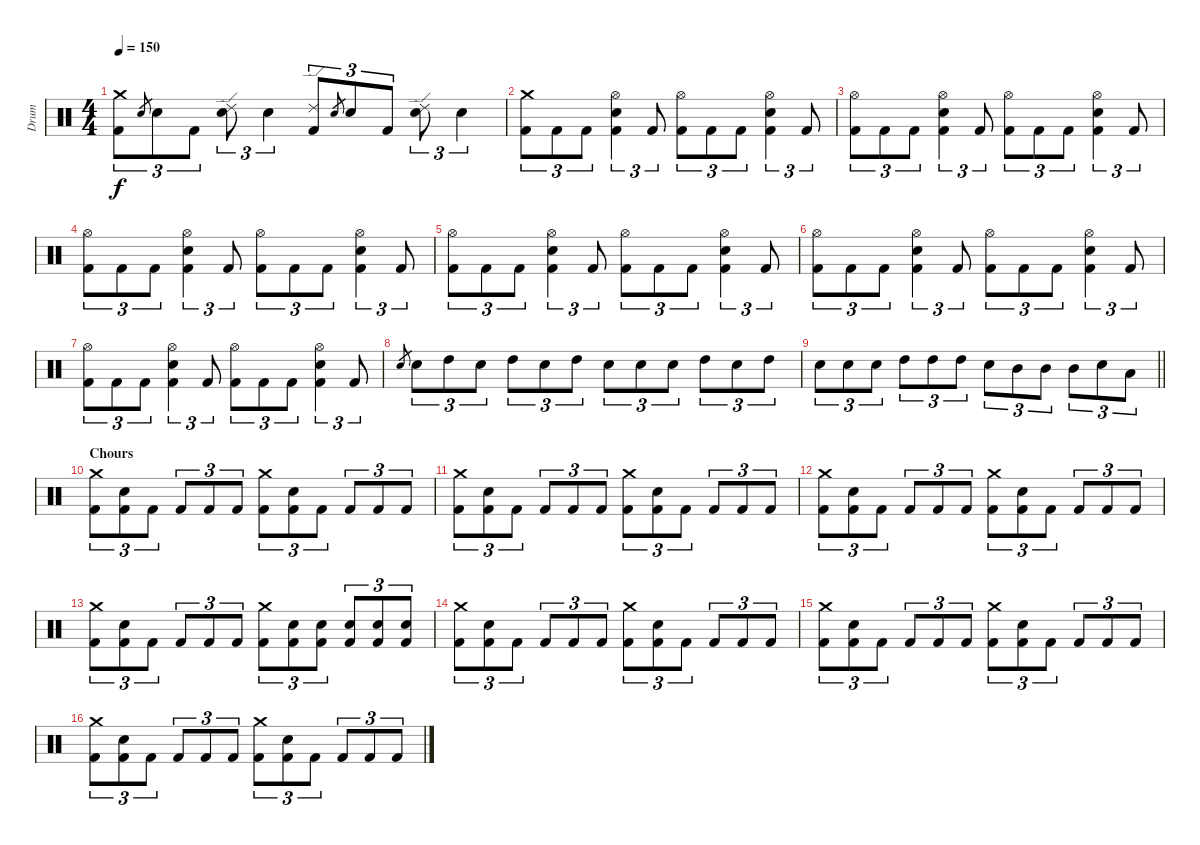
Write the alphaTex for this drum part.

\track ("Drum" "Drum") {instrument percussion}
\staff
\articulation defaults
\ts (4 4)
\tempo 150
\clef neutral
\ks c
("Crash medium (hit)" "Kick (hit) 2").8{tu (3 2) dy f} "Electric Snare (hit)".8{gr} "Electric Snare (hit)".8{tu (3 2)} "Kick (hit) 2".8{tu (3 2)} ("Ride (edge) 2" "Electric Snare (hit)").8{tu (3 2)} "Electric Snare (hit)".4{tu (3 2)} ("Ride (edge) 2" "Kick (hit) 2").8{tu (3 2)} "Electric Snare (hit)".8{gr} "Electric Snare (hit)".8{tu (3 2)} "Kick (hit) 2".8{tu (3 2)} ("Ride (edge) 2" "Electric Snare (hit)").8{tu (3 2)} "Electric Snare (hit)".4{tu (3 2)} |
("Crash medium (hit)" "Kick (hit) 2").8{tu (3 2)} "Kick (hit) 2".8{tu (3 2)} "Kick (hit) 2".8{tu (3 2)} ("Hi-Hat (open)" "Electric Snare (hit)" "Kick (hit) 2").4{tu (3 2)} "Kick (hit) 2".8{tu (3 2)} ("Hi-Hat (open)" "Kick (hit) 2").8{tu (3 2)} "Kick (hit) 2".8{tu (3 2)} "Kick (hit) 2".8{tu (3 2)} ("Hi-Hat (open)" "Electric Snare (hit)" "Kick (hit) 2").4{tu (3 2)} "Kick (hit) 2".8{tu (3 2)} |
("Hi-Hat (open)" "Kick (hit) 2").8{tu (3 2)} "Kick (hit) 2".8{tu (3 2)} "Kick (hit) 2".8{tu (3 2)} ("Hi-Hat (open)" "Electric Snare (hit)" "Kick (hit) 2").4{tu (3 2)} "Kick (hit) 2".8{tu (3 2)} ("Hi-Hat (open)" "Kick (hit) 2").8{tu (3 2)} "Kick (hit) 2".8{tu (3 2)} "Kick (hit) 2".8{tu (3 2)} ("Hi-Hat (open)" "Electric Snare (hit)" "Kick (hit) 2").4{tu (3 2)} "Kick (hit) 2".8{tu (3 2)} |
("Hi-Hat (open)" "Kick (hit) 2").8{tu (3 2)} "Kick (hit) 2".8{tu (3 2)} "Kick (hit) 2".8{tu (3 2)} ("Hi-Hat (open)" "Electric Snare (hit)" "Kick (hit) 2").4{tu (3 2)} "Kick (hit) 2".8{tu (3 2)} ("Hi-Hat (open)" "Kick (hit) 2").8{tu (3 2)} "Kick (hit) 2".8{tu (3 2)} "Kick (hit) 2".8{tu (3 2)} ("Hi-Hat (open)" "Electric Snare (hit)" "Kick (hit) 2").4{tu (3 2)} "Kick (hit) 2".8{tu (3 2)} |
("Hi-Hat (open)" "Kick (hit) 2").8{tu (3 2)} "Kick (hit) 2".8{tu (3 2)} "Kick (hit) 2".8{tu (3 2)} ("Hi-Hat (open)" "Electric Snare (hit)" "Kick (hit) 2").4{tu (3 2)} "Kick (hit) 2".8{tu (3 2)} ("Hi-Hat (open)" "Kick (hit) 2").8{tu (3 2)} "Kick (hit) 2".8{tu (3 2)} "Kick (hit) 2".8{tu (3 2)} ("Hi-Hat (open)" "Electric Snare (hit)" "Kick (hit) 2").4{tu (3 2)} "Kick (hit) 2".8{tu (3 2)} |
("Hi-Hat (open)" "Kick (hit) 2").8{tu (3 2)} "Kick (hit) 2".8{tu (3 2)} "Kick (hit) 2".8{tu (3 2)} ("Hi-Hat (open)" "Electric Snare (hit)" "Kick (hit) 2").4{tu (3 2)} "Kick (hit) 2".8{tu (3 2)} ("Hi-Hat (open)" "Kick (hit) 2").8{tu (3 2)} "Kick (hit) 2".8{tu (3 2)} "Kick (hit) 2".8{tu (3 2)} ("Hi-Hat (open)" "Electric Snare (hit)" "Kick (hit) 2").4{tu (3 2)} "Kick (hit) 2".8{tu (3 2)} |
("Hi-Hat (open)" "Kick (hit) 2").8{tu (3 2)} "Kick (hit) 2".8{tu (3 2)} "Kick (hit) 2".8{tu (3 2)} ("Hi-Hat (open)" "Electric Snare (hit)" "Kick (hit) 2").4{tu (3 2)} "Kick (hit) 2".8{tu (3 2)} ("Hi-Hat (open)" "Kick (hit) 2").8{tu (3 2)} "Kick (hit) 2".8{tu (3 2)} "Kick (hit) 2".8{tu (3 2)} ("Hi-Hat (open)" "Electric Snare (hit)" "Kick (hit) 2").4{tu (3 2)} "Kick (hit) 2".8{tu (3 2)} |
"Electric Snare (hit)".8{gr} "Electric Snare (hit)".8{tu (3 2)} "High Tom (hit)".8{tu (3 2)} "Electric Snare (hit)".8{tu (3 2)} "High Tom (hit)".8{tu (3 2)} "Electric Snare (hit)".8{tu (3 2)} "High Tom (hit)".8{tu (3 2)} "Electric Snare (hit)".8{tu (3 2)} "Electric Snare (hit)".8{tu (3 2)} "Electric Snare (hit)".8{tu (3 2)} "High Tom (hit)".8{tu (3 2)} "Electric Snare (hit)".8{tu (3 2)} "High Tom (hit)".8{tu (3 2)} |
\barLineRight lightlight "Electric Snare (hit)".8{tu (3 2)} "Electric Snare (hit)".8{tu (3 2)} "Electric Snare (hit)".8{tu (3 2)} "High Tom (hit)".8{tu (3 2)} "High Tom (hit)".8{tu (3 2)} "High Tom (hit)".8{tu (3 2)} "Electric Snare (hit)".8{tu (3 2)} "Mid Tom (hit)".8{tu (3 2)} "Mid Tom (hit)".8{tu (3 2)} "Mid Tom (hit)".8{tu (3 2)} "Electric Snare (hit)".8{tu (3 2)} "Low Tom (hit)".8{tu (3 2)}
|
\section ("" "Chours")
("Crash medium (hit)" "Kick (hit) 2").8{tu (3 2)} ("Electric Snare (hit)" "Kick (hit) 2").8{tu (3 2)} "Kick (hit) 2".8{tu (3 2)} "Kick (hit) 2".8{tu (3 2)} "Kick (hit) 2".8{tu (3 2)} "Kick (hit) 2".8{tu (3 2)} ("Crash medium (hit)" "Kick (hit) 2").8{tu (3 2)} ("Electric Snare (hit)" "Kick (hit) 2").8{tu (3 2)} "Kick (hit) 2".8{tu (3 2)} "Kick (hit) 2".8{tu (3 2)} "Kick (hit) 2".8{tu (3 2)} "Kick (hit) 2".8{tu (3 2)} |
("Crash medium (hit)" "Kick (hit) 2").8{tu (3 2)} ("Electric Snare (hit)" "Kick (hit) 2").8{tu (3 2)} "Kick (hit) 2".8{tu (3 2)} "Kick (hit) 2".8{tu (3 2)} "Kick (hit) 2".8{tu (3 2)} "Kick (hit) 2".8{tu (3 2)} ("Crash medium (hit)" "Kick (hit) 2").8{tu (3 2)} ("Electric Snare (hit)" "Kick (hit) 2").8{tu (3 2)} "Kick (hit) 2".8{tu (3 2)} "Kick (hit) 2".8{tu (3 2)} "Kick (hit) 2".8{tu (3 2)} "Kick (hit) 2".8{tu (3 2)} |
("Crash medium (hit)" "Kick (hit) 2").8{tu (3 2)} ("Electric Snare (hit)" "Kick (hit) 2").8{tu (3 2)} "Kick (hit) 2".8{tu (3 2)} "Kick (hit) 2".8{tu (3 2)} "Kick (hit) 2".8{tu (3 2)} "Kick (hit) 2".8{tu (3 2)} ("Crash medium (hit)" "Kick (hit) 2").8{tu (3 2)} ("Electric Snare (hit)" "Kick (hit) 2").8{tu (3 2)} "Kick (hit) 2".8{tu (3 2)} "Kick (hit) 2".8{tu (3 2)} "Kick (hit) 2".8{tu (3 2)} "Kick (hit) 2".8{tu (3 2)} |
("Crash medium (hit)" "Kick (hit) 2").8{tu (3 2)} ("Electric Snare (hit)" "Kick (hit) 2").8{tu (3 2)} "Kick (hit) 2".8{tu (3 2)} "Kick (hit) 2".8{tu (3 2)} "Kick (hit) 2".8{tu (3 2)} "Kick (hit) 2".8{tu (3 2)} ("Crash medium (hit)" "Kick (hit) 2").8{tu (3 2)} ("Electric Snare (hit)" "Kick (hit) 2").8{tu (3 2)} ("Electric Snare (hit)" "Kick (hit) 2").8{tu (3 2)} ("Electric Snare (hit)" "Kick (hit) 2").8{tu (3 2)} ("Electric Snare (hit)" "Kick (hit) 2").8{tu (3 2)} ("Electric Snare (hit)" "Kick (hit) 2").8{tu (3 2)} |
("Crash medium (hit)" "Kick (hit) 2").8{tu (3 2)} ("Electric Snare (hit)" "Kick (hit) 2").8{tu (3 2)} "Kick (hit) 2".8{tu (3 2)} "Kick (hit) 2".8{tu (3 2)} "Kick (hit) 2".8{tu (3 2)} "Kick (hit) 2".8{tu (3 2)} ("Crash medium (hit)" "Kick (hit) 2").8{tu (3 2)} ("Electric Snare (hit)" "Kick (hit) 2").8{tu (3 2)} "Kick (hit) 2".8{tu (3 2)} "Kick (hit) 2".8{tu (3 2)} "Kick (hit) 2".8{tu (3 2)} "Kick (hit) 2".8{tu (3 2)} |
("Crash medium (hit)" "Kick (hit) 2").8{tu (3 2)} ("Electric Snare (hit)" "Kick (hit) 2").8{tu (3 2)} "Kick (hit) 2".8{tu (3 2)} "Kick (hit) 2".8{tu (3 2)} "Kick (hit) 2".8{tu (3 2)} "Kick (hit) 2".8{tu (3 2)} ("Crash medium (hit)" "Kick (hit) 2").8{tu (3 2)} ("Electric Snare (hit)" "Kick (hit) 2").8{tu (3 2)} "Kick (hit) 2".8{tu (3 2)} "Kick (hit) 2".8{tu (3 2)} "Kick (hit) 2".8{tu (3 2)} "Kick (hit) 2".8{tu (3 2)} |
("Crash medium (hit)" "Kick (hit) 2").8{tu (3 2)} ("Electric Snare (hit)" "Kick (hit) 2").8{tu (3 2)} "Kick (hit) 2".8{tu (3 2)} "Kick (hit) 2".8{tu (3 2)} "Kick (hit) 2".8{tu (3 2)} "Kick (hit) 2".8{tu (3 2)} ("Crash medium (hit)" "Kick (hit) 2").8{tu (3 2)} ("Electric Snare (hit)" "Kick (hit) 2").8{tu (3 2)} "Kick (hit) 2".8{tu (3 2)} "Kick (hit) 2".8{tu (3 2)} "Kick (hit) 2".8{tu (3 2)} "Kick (hit) 2".8{tu (3 2)}
